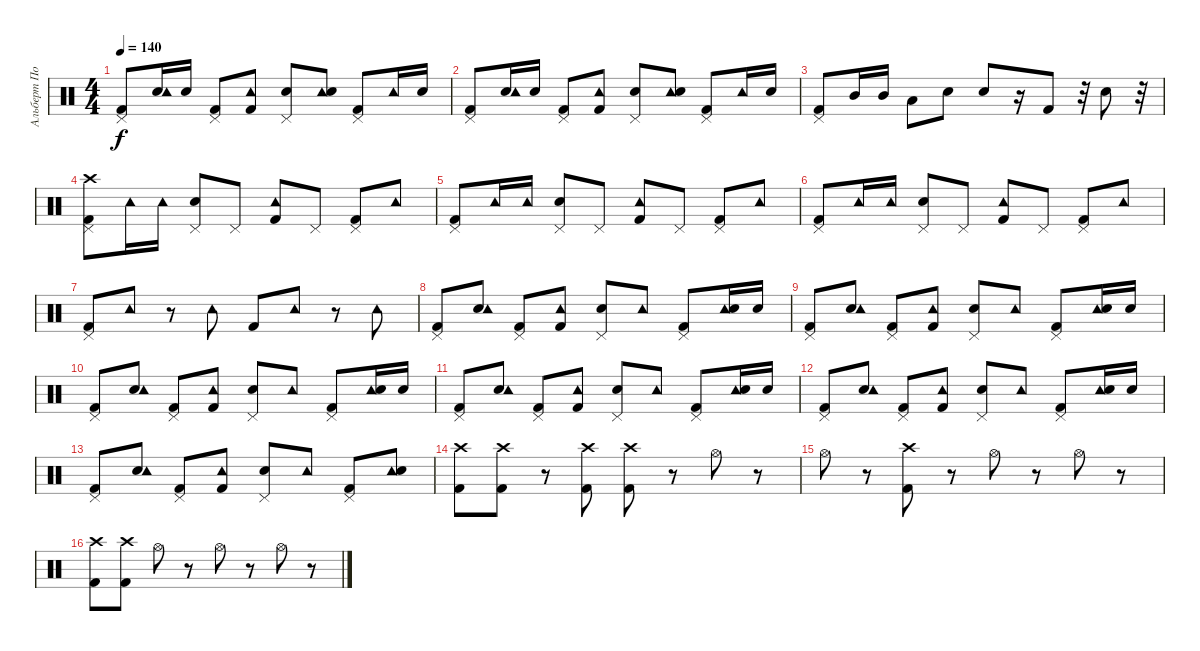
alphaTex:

\track ("Альберт Потапкин" "Альберт По") {instrument percussion}
\staff {score}
\articulation defaults
\ts (4 4)
\tempo 140
\clef neutral
\ks c
("Pedal Hi-Hat (hit)" "Kick (hit) 2").8{dy f} ("Electric Snare (hit)" "Tambourine (hit)").16 "Electric Snare (hit)".16 ("Pedal Hi-Hat (hit)" "Kick (hit) 2").8 ("Kick (hit) 2" "Tambourine (hit)").8 ("Pedal Hi-Hat (hit)" "Electric Snare (hit)").8 ("Tambourine (hit)" "Electric Snare (hit)").8 ("Pedal Hi-Hat (hit)" "Kick (hit) 2").8 "Tambourine (hit)".16 "Electric Snare (hit)".16 |
("Pedal Hi-Hat (hit)" "Kick (hit) 2").8 ("Electric Snare (hit)" "Tambourine (hit)").16 "Electric Snare (hit)".16 ("Pedal Hi-Hat (hit)" "Kick (hit) 2").8 ("Kick (hit) 2" "Tambourine (hit)").8 ("Pedal Hi-Hat (hit)" "Electric Snare (hit)").8 ("Tambourine (hit)" "Electric Snare (hit)").8 ("Pedal Hi-Hat (hit)" "Kick (hit) 2").8 "Tambourine (hit)".16 "Electric Snare (hit)".16 |
("Kick (hit) 2" "Pedal Hi-Hat (hit)").8 "Mid Tom (hit)".16 "Mid Tom (hit)".16 "Low Floor Tom (hit)".8 "Snare (hit) 2".8 "Snare (hit) 2".8 r.16 "Kick (hit) 2".8 r.32 "Electric Snare (hit)".8 r.32 |
("Crash high (hit)" "Pedal Hi-Hat (hit)" "Kick (hit) 2").8 "Tambourine (hit)".16 "Tambourine (hit)".16 ("Snare (hit) 2" "Pedal Hi-Hat (hit)").8 "Pedal Hi-Hat (hit)".8 ("Tambourine (hit)" "Kick (hit) 2").8 "Pedal Hi-Hat (hit)".8 ("Pedal Hi-Hat (hit)" "Kick (hit) 2").8 "Tambourine (hit)".8 |
("Pedal Hi-Hat (hit)" "Kick (hit) 2").8 "Tambourine (hit)".16 "Tambourine (hit)".16 ("Snare (hit) 2" "Pedal Hi-Hat (hit)").8 "Pedal Hi-Hat (hit)".8 ("Tambourine (hit)" "Kick (hit) 2").8 "Pedal Hi-Hat (hit)".8 ("Pedal Hi-Hat (hit)" "Kick (hit) 2").8 "Tambourine (hit)".8 |
("Pedal Hi-Hat (hit)" "Kick (hit) 2").8 "Tambourine (hit)".16 "Tambourine (hit)".16 ("Snare (hit) 2" "Pedal Hi-Hat (hit)").8 "Pedal Hi-Hat (hit)".8 ("Tambourine (hit)" "Kick (hit) 2").8 "Pedal Hi-Hat (hit)".8 ("Pedal Hi-Hat (hit)" "Kick (hit) 2").8 "Tambourine (hit)".8 |
("Pedal Hi-Hat (hit)" "Kick (hit) 2").8 "Tambourine (hit)".8 r.8 "Tambourine (hit)".8 "Kick (hit) 2".8 "Tambourine (hit)".8 r.8 "Tambourine (hit)".8 |
("Pedal Hi-Hat (hit)" "Kick (hit) 2").8 ("Electric Snare (hit)" "Tambourine (hit)").8 ("Pedal Hi-Hat (hit)" "Kick (hit) 2").8 ("Kick (hit) 2" "Tambourine (hit)").8 ("Pedal Hi-Hat (hit)" "Snare (hit) 2").8 "Tambourine (hit)".8 ("Pedal Hi-Hat (hit)" "Kick (hit) 2").8 ("Tambourine (hit)" "Electric Snare (hit)").16 "Electric Snare (hit)".16 |
("Pedal Hi-Hat (hit)" "Kick (hit) 2").8 ("Electric Snare (hit)" "Tambourine (hit)").8 ("Pedal Hi-Hat (hit)" "Kick (hit) 2").8 ("Kick (hit) 2" "Tambourine (hit)").8 ("Pedal Hi-Hat (hit)" "Snare (hit) 2").8 "Tambourine (hit)".8 ("Pedal Hi-Hat (hit)" "Kick (hit) 2").8 ("Tambourine (hit)" "Electric Snare (hit)").16 "Electric Snare (hit)".16 |
("Pedal Hi-Hat (hit)" "Kick (hit) 2").8 ("Electric Snare (hit)" "Tambourine (hit)").8 ("Pedal Hi-Hat (hit)" "Kick (hit) 2").8 ("Kick (hit) 2" "Tambourine (hit)").8 ("Pedal Hi-Hat (hit)" "Snare (hit) 2").8 "Tambourine (hit)".8 ("Pedal Hi-Hat (hit)" "Kick (hit) 2").8 ("Tambourine (hit)" "Electric Snare (hit)").16 "Electric Snare (hit)".16 |
("Pedal Hi-Hat (hit)" "Kick (hit) 2").8 ("Electric Snare (hit)" "Tambourine (hit)").8 ("Pedal Hi-Hat (hit)" "Kick (hit) 2").8 ("Kick (hit) 2" "Tambourine (hit)").8 ("Pedal Hi-Hat (hit)" "Snare (hit) 2").8 "Tambourine (hit)".8 ("Pedal Hi-Hat (hit)" "Kick (hit) 2").8 ("Tambourine (hit)" "Electric Snare (hit)").16 "Electric Snare (hit)".16 |
("Pedal Hi-Hat (hit)" "Kick (hit) 2").8 ("Electric Snare (hit)" "Tambourine (hit)").8 ("Pedal Hi-Hat (hit)" "Kick (hit) 2").8 ("Kick (hit) 2" "Tambourine (hit)").8 ("Pedal Hi-Hat (hit)" "Snare (hit) 2").8 "Tambourine (hit)".8 ("Pedal Hi-Hat (hit)" "Kick (hit) 2").8 ("Tambourine (hit)" "Electric Snare (hit)").16 "Electric Snare (hit)".16 |
("Pedal Hi-Hat (hit)" "Kick (hit) 2").8 ("Electric Snare (hit)" "Tambourine (hit)").8 ("Pedal Hi-Hat (hit)" "Kick (hit) 2").8 ("Kick (hit) 2" "Tambourine (hit)").8 ("Pedal Hi-Hat (hit)" "Snare (hit) 2").8 "Tambourine (hit)".8 ("Pedal Hi-Hat (hit)" "Kick (hit) 2").8 ("Tambourine (hit)" "Electric Snare (hit)").8 |
("Crash high (hit)" "Kick (hit) 2").8 ("Crash high (hit)" "Kick (hit) 2").8 r.8 ("Crash high (hit)" "Kick (hit) 2").8 ("Crash high (hit)" "Kick (hit) 2").8 r.8 "Hi-Hat (open)".8 r.8 |
"Hi-Hat (open)".8 r.8 ("Kick (hit) 2" "Crash high (hit)").8 r.8 "Hi-Hat (open)".8 r.8 "Hi-Hat (open)".8 r.8 |
("Crash high (hit)" "Kick (hit) 2").8 ("Kick (hit) 2" "Crash high (hit)").8 "Hi-Hat (open)".8 r.8 "Hi-Hat (open)".8 r.8 "Hi-Hat (open)".8 r.8
